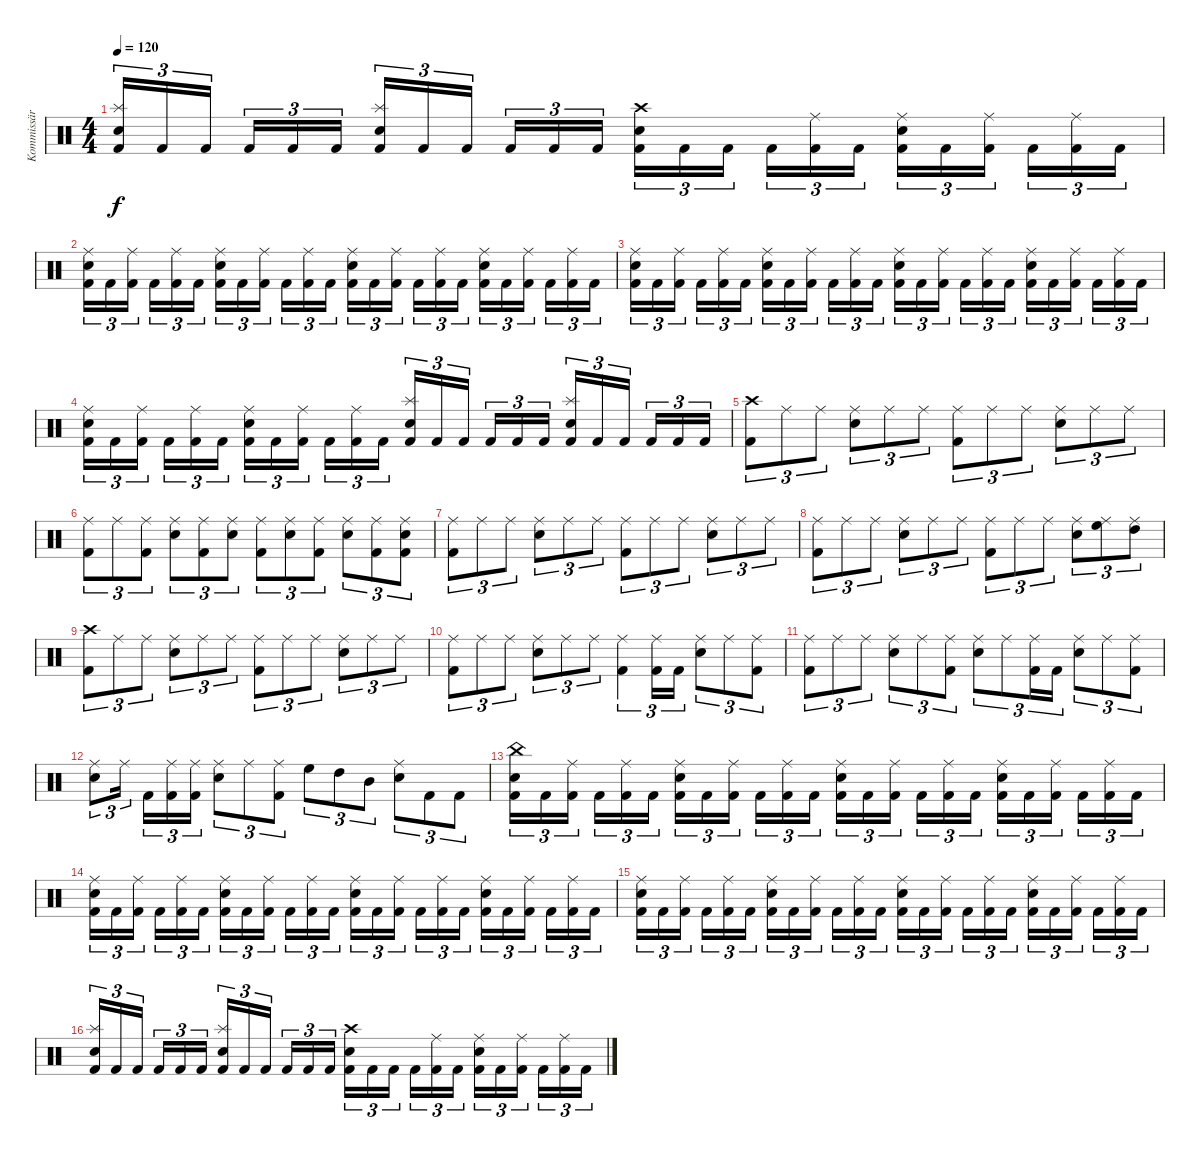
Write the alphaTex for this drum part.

\track ("Kommissär Ogrim" "Kommissär ") {instrument percussion}
\staff {score}
\articulation defaults
\ts (4 4)
\tempo 120
\clef neutral
\ks c
("Snare (hit) 2" "Splash (hit)" "Kick (hit) 2").16{tu (3 2) dy f} "Kick (hit) 2".16{tu (3 2)} "Kick (hit) 2".16{tu (3 2)} "Kick (hit) 2".16{tu (3 2)} "Kick (hit) 2".16{tu (3 2)} "Kick (hit) 2".16{tu (3 2)} ("Snare (hit) 2" "Splash (hit)" "Kick (hit) 2").16{tu (3 2)} "Kick (hit) 2".16{tu (3 2)} "Kick (hit) 2".16{tu (3 2)} "Kick (hit) 2".16{tu (3 2)} "Kick (hit) 2".16{tu (3 2)} "Kick (hit) 2".16{tu (3 2)} ("Snare (hit) 2" "Crash high (hit)" "Kick (hit) 2").16{tu (3 2)} "Kick (hit) 2".16{tu (3 2)} "Kick (hit) 2".16{tu (3 2)} "Kick (hit) 2".16{tu (3 2)} ("Ride (middle)" "Kick (hit) 2").16{tu (3 2)} "Kick (hit) 2".16{tu (3 2)} ("Snare (hit) 2" "Ride (middle)" "Kick (hit) 2").16{tu (3 2)} "Kick (hit) 2".16{tu (3 2)} ("Ride (middle)" "Kick (hit) 2").16{tu (3 2)} "Kick (hit) 2".16{tu (3 2)} ("Ride (middle)" "Kick (hit) 2").16{tu (3 2)} "Kick (hit) 2".16{tu (3 2)} |
("Snare (hit) 2" "Ride (middle)" "Kick (hit) 2").16{tu (3 2)} "Kick (hit) 2".16{tu (3 2)} ("Ride (middle)" "Kick (hit) 2").16{tu (3 2)} "Kick (hit) 2".16{tu (3 2)} ("Ride (middle)" "Kick (hit) 2").16{tu (3 2)} "Kick (hit) 2".16{tu (3 2)} ("Snare (hit) 2" "Ride (middle)" "Kick (hit) 2").16{tu (3 2)} "Kick (hit) 2".16{tu (3 2)} ("Ride (middle)" "Kick (hit) 2").16{tu (3 2)} "Kick (hit) 2".16{tu (3 2)} ("Ride (middle)" "Kick (hit) 2").16{tu (3 2)} "Kick (hit) 2".16{tu (3 2)} ("Snare (hit) 2" "Ride (middle)" "Kick (hit) 2").16{tu (3 2)} "Kick (hit) 2".16{tu (3 2)} ("Ride (middle)" "Kick (hit) 2").16{tu (3 2)} "Kick (hit) 2".16{tu (3 2)} ("Ride (middle)" "Kick (hit) 2").16{tu (3 2)} "Kick (hit) 2".16{tu (3 2)} ("Snare (hit) 2" "Ride (middle)" "Kick (hit) 2").16{tu (3 2)} "Kick (hit) 2".16{tu (3 2)} ("Ride (middle)" "Kick (hit) 2").16{tu (3 2)} "Kick (hit) 2".16{tu (3 2)} ("Ride (middle)" "Kick (hit) 2").16{tu (3 2)} "Kick (hit) 2".16{tu (3 2)} |
("Snare (hit) 2" "Ride (middle)" "Kick (hit) 2").16{tu (3 2)} "Kick (hit) 2".16{tu (3 2)} ("Ride (middle)" "Kick (hit) 2").16{tu (3 2)} "Kick (hit) 2".16{tu (3 2)} ("Ride (middle)" "Kick (hit) 2").16{tu (3 2)} "Kick (hit) 2".16{tu (3 2)} ("Snare (hit) 2" "Ride (middle)" "Kick (hit) 2").16{tu (3 2)} "Kick (hit) 2".16{tu (3 2)} ("Ride (middle)" "Kick (hit) 2").16{tu (3 2)} "Kick (hit) 2".16{tu (3 2)} ("Ride (middle)" "Kick (hit) 2").16{tu (3 2)} "Kick (hit) 2".16{tu (3 2)} ("Snare (hit) 2" "Ride (middle)" "Kick (hit) 2").16{tu (3 2)} "Kick (hit) 2".16{tu (3 2)} ("Ride (middle)" "Kick (hit) 2").16{tu (3 2)} "Kick (hit) 2".16{tu (3 2)} ("Ride (middle)" "Kick (hit) 2").16{tu (3 2)} "Kick (hit) 2".16{tu (3 2)} ("Snare (hit) 2" "Ride (middle)" "Kick (hit) 2").16{tu (3 2)} "Kick (hit) 2".16{tu (3 2)} ("Ride (middle)" "Kick (hit) 2").16{tu (3 2)} "Kick (hit) 2".16{tu (3 2)} ("Ride (middle)" "Kick (hit) 2").16{tu (3 2)} "Kick (hit) 2".16{tu (3 2)} |
("Snare (hit) 2" "Ride (middle)" "Kick (hit) 2").16{tu (3 2)} "Kick (hit) 2".16{tu (3 2)} ("Ride (middle)" "Kick (hit) 2").16{tu (3 2)} "Kick (hit) 2".16{tu (3 2)} ("Ride (middle)" "Kick (hit) 2").16{tu (3 2)} "Kick (hit) 2".16{tu (3 2)} ("Snare (hit) 2" "Ride (middle)" "Kick (hit) 2").16{tu (3 2)} "Kick (hit) 2".16{tu (3 2)} ("Ride (middle)" "Kick (hit) 2").16{tu (3 2)} "Kick (hit) 2".16{tu (3 2)} ("Ride (middle)" "Kick (hit) 2").16{tu (3 2)} "Kick (hit) 2".16{tu (3 2)} ("Snare (hit) 2" "Splash (hit)" "Kick (hit) 2").16{tu (3 2)} "Kick (hit) 2".16{tu (3 2)} "Kick (hit) 2".16{tu (3 2)} "Kick (hit) 2".16{tu (3 2)} "Kick (hit) 2".16{tu (3 2)} "Kick (hit) 2".16{tu (3 2)} ("Snare (hit) 2" "Splash (hit)" "Kick (hit) 2").16{tu (3 2)} "Kick (hit) 2".16{tu (3 2)} "Kick (hit) 2".16{tu (3 2)} "Kick (hit) 2".16{tu (3 2)} "Kick (hit) 2".16{tu (3 2)} "Kick (hit) 2".16{tu (3 2)} |
("Crash high (hit)" "Kick (hit) 2").8{tu (3 2)} "Ride (middle)".8{tu (3 2)} "Ride (middle)".8{tu (3 2)} ("Snare (hit) 2" "Ride (middle)").8{tu (3 2)} "Ride (middle)".8{tu (3 2)} "Ride (middle)".8{tu (3 2)} ("Ride (middle)" "Kick (hit) 2").8{tu (3 2)} "Ride (middle)".8{tu (3 2)} "Ride (middle)".8{tu (3 2)} ("Snare (hit) 2" "Ride (middle)").8{tu (3 2)} "Ride (middle)".8{tu (3 2)} "Ride (middle)".8{tu (3 2)} |
("Ride (middle)" "Kick (hit) 2").8{tu (3 2)} "Ride (middle)".8{tu (3 2)} ("Ride (middle)" "Kick (hit) 2").8{tu (3 2)} ("Snare (hit) 2" "Ride (middle)").8{tu (3 2)} ("Ride (middle)" "Kick (hit) 2").8{tu (3 2)} ("Snare (hit) 2" "Ride (middle)").8{tu (3 2)} ("Ride (middle)" "Kick (hit) 2").8{tu (3 2)} ("Snare (hit) 2" "Ride (middle)").8{tu (3 2)} ("Ride (middle)" "Kick (hit) 2").8{tu (3 2)} ("Snare (hit) 2" "Ride (middle)").8{tu (3 2)} ("Ride (middle)" "Kick (hit) 2").8{tu (3 2)} ("Snare (hit) 2" "Ride (middle)" "Kick (hit) 2").8{tu (3 2)} |
("Ride (middle)" "Kick (hit) 2").8{tu (3 2)} "Ride (middle)".8{tu (3 2)} "Ride (middle)".8{tu (3 2)} ("Snare (hit) 2" "Ride (middle)").8{tu (3 2)} "Ride (middle)".8{tu (3 2)} "Ride (middle)".8{tu (3 2)} ("Ride (middle)" "Kick (hit) 2").8{tu (3 2)} "Ride (middle)".8{tu (3 2)} "Ride (middle)".8{tu (3 2)} ("Snare (hit) 2" "Ride (middle)").8{tu (3 2)} "Ride (middle)".8{tu (3 2)} "Ride (middle)".8{tu (3 2)} |
("Ride (middle)" "Kick (hit) 2").8{tu (3 2)} "Ride (middle)".8{tu (3 2)} "Ride (middle)".8{tu (3 2)} ("Snare (hit) 2" "Ride (middle)").8{tu (3 2)} "Ride (middle)".8{tu (3 2)} "Ride (middle)".8{tu (3 2)} ("Ride (middle)" "Kick (hit) 2").8{tu (3 2)} "Ride (middle)".8{tu (3 2)} "Ride (middle)".8{tu (3 2)} ("Snare (hit) 2" "Ride (middle)").8{tu (3 2)} ("Ride (middle)" "High Floor Tom (hit)").8{tu (3 2)} ("Ride (middle)" "High Tom (hit)").8{tu (3 2)} |
("Crash high (hit)" "Kick (hit) 2").8{tu (3 2)} "Ride (middle)".8{tu (3 2)} "Ride (middle)".8{tu (3 2)} ("Snare (hit) 2" "Ride (middle)").8{tu (3 2)} "Ride (middle)".8{tu (3 2)} "Ride (middle)".8{tu (3 2)} ("Ride (middle)" "Kick (hit) 2").8{tu (3 2)} "Ride (middle)".8{tu (3 2)} "Ride (middle)".8{tu (3 2)} ("Snare (hit) 2" "Ride (middle)").8{tu (3 2)} "Ride (middle)".8{tu (3 2)} "Ride (middle)".8{tu (3 2)} |
("Ride (middle)" "Kick (hit) 2").8{tu (3 2)} "Ride (middle)".8{tu (3 2)} "Ride (middle)".8{tu (3 2)} ("Snare (hit) 2" "Ride (middle)").8{tu (3 2)} "Ride (middle)".8{tu (3 2)} "Ride (middle)".8{tu (3 2)} ("Ride (middle)" "Kick (hit) 2").4{tu (3 2)} ("Ride (middle)" "Kick (hit) 2").16{tu (3 2)} "Kick (hit) 2".16{tu (3 2)} ("Snare (hit) 2" "Ride (middle)").8{tu (3 2)} "Ride (middle)".8{tu (3 2)} ("Ride (middle)" "Kick (hit) 2").8{tu (3 2)} |
("Ride (middle)" "Kick (hit) 2").8{tu (3 2)} "Ride (middle)".8{tu (3 2)} "Ride (middle)".8{tu (3 2)} ("Snare (hit) 2" "Ride (middle)").8{tu (3 2)} "Ride (middle)".8{tu (3 2)} ("Ride (middle)" "Kick (hit) 2").8{tu (3 2)} ("Snare (hit) 2" "Ride (middle)").8{tu (3 2)} "Ride (middle)".8{tu (3 2)} ("Ride (middle)" "Kick (hit) 2").16{tu (3 2)} "Kick (hit) 2".16{tu (3 2)} ("Snare (hit) 2" "Ride (middle)").8{tu (3 2)} "Ride (middle)".8{tu (3 2)} ("Ride (middle)" "Kick (hit) 2").8{tu (3 2)} |
("Snare (hit) 2" "Ride (middle)").8{tu (3 2)} "Ride (middle)".16{tu (3 2)} "Kick (hit) 2".16{tu (3 2)} ("Ride (middle)" "Kick (hit) 2").16{tu (3 2)} ("Ride (middle)" "Kick (hit) 2").16{tu (3 2)} ("Snare (hit) 2" "Ride (middle)").8{tu (3 2)} "Ride (middle)".8{tu (3 2)} ("Ride (middle)" "Kick (hit) 2").8{tu (3 2)} "High Floor Tom (hit)".8{tu (3 2)} "High Tom (hit)".8{tu (3 2)} "Mid Tom (hit)".8{tu (3 2)} ("Snare (hit) 2" "Ride (middle)").8{tu (3 2)} "Kick (hit) 2".8{tu (3 2)} "Kick (hit) 2".8{tu (3 2)} |
("Snare (hit) 2" "China (hit)" "Kick (hit) 2").16{tu (3 2)} "Kick (hit) 2".16{tu (3 2)} ("Ride (middle)" "Kick (hit) 2").16{tu (3 2)} "Kick (hit) 2".16{tu (3 2)} ("Ride (middle)" "Kick (hit) 2").16{tu (3 2)} "Kick (hit) 2".16{tu (3 2)} ("Snare (hit) 2" "Ride (middle)" "Kick (hit) 2").16{tu (3 2)} "Kick (hit) 2".16{tu (3 2)} ("Ride (middle)" "Kick (hit) 2").16{tu (3 2)} "Kick (hit) 2".16{tu (3 2)} ("Ride (middle)" "Kick (hit) 2").16{tu (3 2)} "Kick (hit) 2".16{tu (3 2)} ("Snare (hit) 2" "Ride (middle)" "Kick (hit) 2").16{tu (3 2)} "Kick (hit) 2".16{tu (3 2)} ("Ride (middle)" "Kick (hit) 2").16{tu (3 2)} "Kick (hit) 2".16{tu (3 2)} ("Ride (middle)" "Kick (hit) 2").16{tu (3 2)} "Kick (hit) 2".16{tu (3 2)} ("Snare (hit) 2" "Ride (middle)" "Kick (hit) 2").16{tu (3 2)} "Kick (hit) 2".16{tu (3 2)} ("Ride (middle)" "Kick (hit) 2").16{tu (3 2)} "Kick (hit) 2".16{tu (3 2)} ("Ride (middle)" "Kick (hit) 2").16{tu (3 2)} "Kick (hit) 2".16{tu (3 2)} |
("Snare (hit) 2" "Ride (middle)" "Kick (hit) 2").16{tu (3 2)} "Kick (hit) 2".16{tu (3 2)} ("Ride (middle)" "Kick (hit) 2").16{tu (3 2)} "Kick (hit) 2".16{tu (3 2)} ("Ride (middle)" "Kick (hit) 2").16{tu (3 2)} "Kick (hit) 2".16{tu (3 2)} ("Snare (hit) 2" "Ride (middle)" "Kick (hit) 2").16{tu (3 2)} "Kick (hit) 2".16{tu (3 2)} ("Ride (middle)" "Kick (hit) 2").16{tu (3 2)} "Kick (hit) 2".16{tu (3 2)} ("Ride (middle)" "Kick (hit) 2").16{tu (3 2)} "Kick (hit) 2".16{tu (3 2)} ("Snare (hit) 2" "Ride (middle)" "Kick (hit) 2").16{tu (3 2)} "Kick (hit) 2".16{tu (3 2)} ("Ride (middle)" "Kick (hit) 2").16{tu (3 2)} "Kick (hit) 2".16{tu (3 2)} ("Ride (middle)" "Kick (hit) 2").16{tu (3 2)} "Kick (hit) 2".16{tu (3 2)} ("Snare (hit) 2" "Ride (middle)" "Kick (hit) 2").16{tu (3 2)} "Kick (hit) 2".16{tu (3 2)} ("Ride (middle)" "Kick (hit) 2").16{tu (3 2)} "Kick (hit) 2".16{tu (3 2)} ("Ride (middle)" "Kick (hit) 2").16{tu (3 2)} "Kick (hit) 2".16{tu (3 2)} |
("Snare (hit) 2" "Ride (middle)" "Kick (hit) 2").16{tu (3 2)} "Kick (hit) 2".16{tu (3 2)} ("Ride (middle)" "Kick (hit) 2").16{tu (3 2)} "Kick (hit) 2".16{tu (3 2)} ("Ride (middle)" "Kick (hit) 2").16{tu (3 2)} "Kick (hit) 2".16{tu (3 2)} ("Snare (hit) 2" "Ride (middle)" "Kick (hit) 2").16{tu (3 2)} "Kick (hit) 2".16{tu (3 2)} ("Ride (middle)" "Kick (hit) 2").16{tu (3 2)} "Kick (hit) 2".16{tu (3 2)} ("Ride (middle)" "Kick (hit) 2").16{tu (3 2)} "Kick (hit) 2".16{tu (3 2)} ("Snare (hit) 2" "Ride (middle)" "Kick (hit) 2").16{tu (3 2)} "Kick (hit) 2".16{tu (3 2)} ("Ride (middle)" "Kick (hit) 2").16{tu (3 2)} "Kick (hit) 2".16{tu (3 2)} ("Ride (middle)" "Kick (hit) 2").16{tu (3 2)} "Kick (hit) 2".16{tu (3 2)} ("Snare (hit) 2" "Ride (middle)" "Kick (hit) 2").16{tu (3 2)} "Kick (hit) 2".16{tu (3 2)} ("Ride (middle)" "Kick (hit) 2").16{tu (3 2)} "Kick (hit) 2".16{tu (3 2)} ("Ride (middle)" "Kick (hit) 2").16{tu (3 2)} "Kick (hit) 2".16{tu (3 2)} |
("Snare (hit) 2" "Splash (hit)" "Kick (hit) 2").16{tu (3 2)} "Kick (hit) 2".16{tu (3 2)} "Kick (hit) 2".16{tu (3 2)} "Kick (hit) 2".16{tu (3 2)} "Kick (hit) 2".16{tu (3 2)} "Kick (hit) 2".16{tu (3 2)} ("Snare (hit) 2" "Splash (hit)" "Kick (hit) 2").16{tu (3 2)} "Kick (hit) 2".16{tu (3 2)} "Kick (hit) 2".16{tu (3 2)} "Kick (hit) 2".16{tu (3 2)} "Kick (hit) 2".16{tu (3 2)} "Kick (hit) 2".16{tu (3 2)} ("Snare (hit) 2" "Crash high (hit)" "Kick (hit) 2").16{tu (3 2)} "Kick (hit) 2".16{tu (3 2)} "Kick (hit) 2".16{tu (3 2)} "Kick (hit) 2".16{tu (3 2)} ("Ride (middle)" "Kick (hit) 2").16{tu (3 2)} "Kick (hit) 2".16{tu (3 2)} ("Snare (hit) 2" "Ride (middle)" "Kick (hit) 2").16{tu (3 2)} "Kick (hit) 2".16{tu (3 2)} ("Ride (middle)" "Kick (hit) 2").16{tu (3 2)} "Kick (hit) 2".16{tu (3 2)} ("Ride (middle)" "Kick (hit) 2").16{tu (3 2)} "Kick (hit) 2".16{tu (3 2)}
